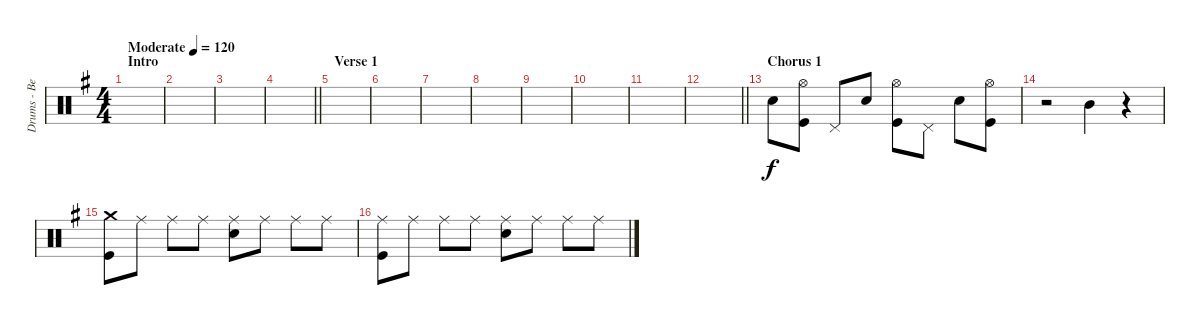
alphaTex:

\track ("Drums - Ben Johnston" "Drums - Be") {instrument percussion}
\staff {score}
\articulation defaults
\ts (4 4)
\section ("" "Intro")
\tempo (120 "Moderate")
\clef neutral
\ks eminor
|
|
|
\barLineRight lightlight
|
\section ("" "Verse 1")
|
|
|
|
|
|
|
\barLineRight lightlight
|
\section ("" "Chorus 1")
"Snare (hit) 2".8 ("Hi-Hat (open)" "Kick (hit)").8 "Pedal Hi-Hat (hit)".8 "Snare (hit) 2".8 ("Hi-Hat (open)" "Kick (hit)").8 "Pedal Hi-Hat (hit)".8 "Snare (hit) 2".8 ("Hi-Hat (open)" "Kick (hit)").8 |
r.2 "Mid Tom (hit)".4 r.4 |
("Crash medium (hit)" "Kick (hit)").8 "Ride (middle)".8 "Ride (middle)".8 "Ride (middle)".8 ("Ride (middle)" "Snare (hit) 2").8 "Ride (middle)".8 "Ride (middle)".8 "Ride (middle)".8 |
("Ride (middle)" "Kick (hit)").8 "Ride (middle)".8 "Ride (middle)".8 "Ride (middle)".8 ("Ride (middle)" "Snare (hit) 2").8 "Ride (middle)".8 "Ride (middle)".8 "Ride (middle)".8
